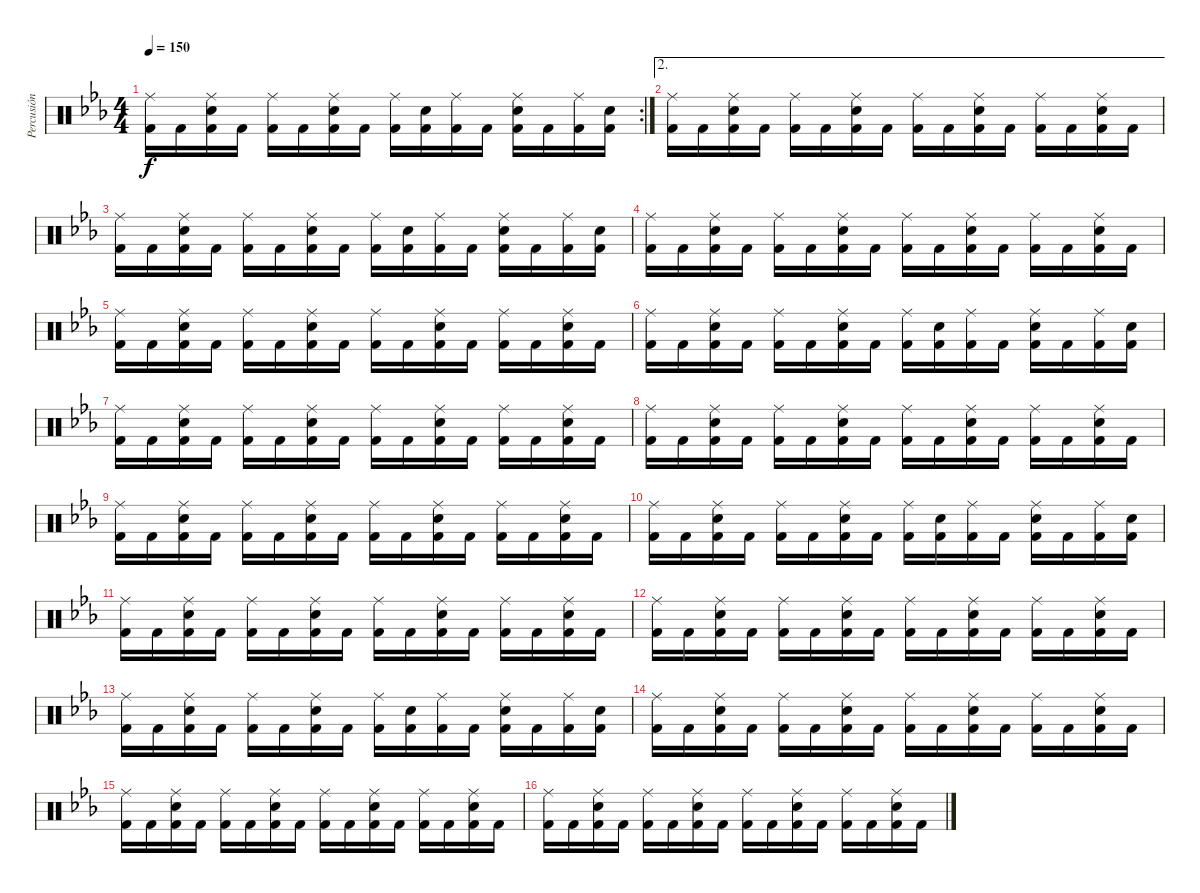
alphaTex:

\track ("Percusión" "Percusión") {instrument percussion}
\staff {score}
\articulation defaults
\rc 2
\ts (4 4)
\tempo 150
\clef neutral
\ks cminor
("Ride (middle)" "Kick (hit) 2").16{dy f} "Kick (hit) 2".16 ("Ride (middle)" "Electric Snare (hit)" "Kick (hit) 2").16 "Kick (hit) 2".16 ("Ride (middle)" "Kick (hit) 2").16 "Kick (hit) 2".16 ("Ride (middle)" "Electric Snare (hit)" "Kick (hit) 2").16 "Kick (hit) 2".16 ("Ride (middle)" "Kick (hit) 2").16 ("Electric Snare (hit)" "Kick (hit) 2").16 ("Ride (middle)" "Kick (hit) 2").16 "Kick (hit) 2".16 ("Ride (middle)" "Electric Snare (hit)" "Kick (hit) 2").16 "Kick (hit) 2".16 ("Ride (middle)" "Kick (hit) 2").16 ("Electric Snare (hit)" "Kick (hit) 2").16 |
\ae 2
("Ride (middle)" "Kick (hit) 2").16 "Kick (hit) 2".16 ("Ride (middle)" "Electric Snare (hit)" "Kick (hit) 2").16 "Kick (hit) 2".16 ("Ride (middle)" "Kick (hit) 2").16 "Kick (hit) 2".16 ("Ride (middle)" "Electric Snare (hit)" "Kick (hit) 2").16 "Kick (hit) 2".16 ("Ride (middle)" "Kick (hit) 2").16 "Kick (hit) 2".16 ("Ride (middle)" "Electric Snare (hit)" "Kick (hit) 2").16 "Kick (hit) 2".16 ("Ride (middle)" "Kick (hit) 2").16 "Kick (hit) 2".16 ("Ride (middle)" "Electric Snare (hit)" "Kick (hit) 2").16 "Kick (hit) 2".16 |
("Ride (middle)" "Kick (hit) 2").16 "Kick (hit) 2".16 ("Ride (middle)" "Electric Snare (hit)" "Kick (hit) 2").16 "Kick (hit) 2".16 ("Ride (middle)" "Kick (hit) 2").16 "Kick (hit) 2".16 ("Ride (middle)" "Electric Snare (hit)" "Kick (hit) 2").16 "Kick (hit) 2".16 ("Ride (middle)" "Kick (hit) 2").16 ("Electric Snare (hit)" "Kick (hit) 2").16 ("Ride (middle)" "Kick (hit) 2").16 "Kick (hit) 2".16 ("Ride (middle)" "Electric Snare (hit)" "Kick (hit) 2").16 "Kick (hit) 2".16 ("Ride (middle)" "Kick (hit) 2").16 ("Electric Snare (hit)" "Kick (hit) 2").16 |
("Ride (middle)" "Kick (hit) 2").16 "Kick (hit) 2".16 ("Ride (middle)" "Electric Snare (hit)" "Kick (hit) 2").16 "Kick (hit) 2".16 ("Ride (middle)" "Kick (hit) 2").16 "Kick (hit) 2".16 ("Ride (middle)" "Electric Snare (hit)" "Kick (hit) 2").16 "Kick (hit) 2".16 ("Ride (middle)" "Kick (hit) 2").16 "Kick (hit) 2".16 ("Ride (middle)" "Electric Snare (hit)" "Kick (hit) 2").16 "Kick (hit) 2".16 ("Ride (middle)" "Kick (hit) 2").16 "Kick (hit) 2".16 ("Ride (middle)" "Electric Snare (hit)" "Kick (hit) 2").16 "Kick (hit) 2".16 |
("Ride (middle)" "Kick (hit) 2").16 "Kick (hit) 2".16 ("Ride (middle)" "Electric Snare (hit)" "Kick (hit) 2").16 "Kick (hit) 2".16 ("Ride (middle)" "Kick (hit) 2").16 "Kick (hit) 2".16 ("Ride (middle)" "Electric Snare (hit)" "Kick (hit) 2").16 "Kick (hit) 2".16 ("Ride (middle)" "Kick (hit) 2").16 "Kick (hit) 2".16 ("Ride (middle)" "Electric Snare (hit)" "Kick (hit) 2").16 "Kick (hit) 2".16 ("Ride (middle)" "Kick (hit) 2").16 "Kick (hit) 2".16 ("Ride (middle)" "Electric Snare (hit)" "Kick (hit) 2").16 "Kick (hit) 2".16 |
("Ride (middle)" "Kick (hit) 2").16 "Kick (hit) 2".16 ("Ride (middle)" "Electric Snare (hit)" "Kick (hit) 2").16 "Kick (hit) 2".16 ("Ride (middle)" "Kick (hit) 2").16 "Kick (hit) 2".16 ("Ride (middle)" "Electric Snare (hit)" "Kick (hit) 2").16 "Kick (hit) 2".16 ("Ride (middle)" "Kick (hit) 2").16 ("Electric Snare (hit)" "Kick (hit) 2").16 ("Ride (middle)" "Kick (hit) 2").16 "Kick (hit) 2".16 ("Ride (middle)" "Electric Snare (hit)" "Kick (hit) 2").16 "Kick (hit) 2".16 ("Ride (middle)" "Kick (hit) 2").16 ("Electric Snare (hit)" "Kick (hit) 2").16 |
("Ride (middle)" "Kick (hit) 2").16 "Kick (hit) 2".16 ("Ride (middle)" "Electric Snare (hit)" "Kick (hit) 2").16 "Kick (hit) 2".16 ("Ride (middle)" "Kick (hit) 2").16 "Kick (hit) 2".16 ("Ride (middle)" "Electric Snare (hit)" "Kick (hit) 2").16 "Kick (hit) 2".16 ("Ride (middle)" "Kick (hit) 2").16 "Kick (hit) 2".16 ("Ride (middle)" "Electric Snare (hit)" "Kick (hit) 2").16 "Kick (hit) 2".16 ("Ride (middle)" "Kick (hit) 2").16 "Kick (hit) 2".16 ("Ride (middle)" "Electric Snare (hit)" "Kick (hit) 2").16 "Kick (hit) 2".16 |
("Ride (middle)" "Kick (hit) 2").16 "Kick (hit) 2".16 ("Ride (middle)" "Electric Snare (hit)" "Kick (hit) 2").16 "Kick (hit) 2".16 ("Ride (middle)" "Kick (hit) 2").16 "Kick (hit) 2".16 ("Ride (middle)" "Electric Snare (hit)" "Kick (hit) 2").16 "Kick (hit) 2".16 ("Ride (middle)" "Kick (hit) 2").16 "Kick (hit) 2".16 ("Ride (middle)" "Electric Snare (hit)" "Kick (hit) 2").16 "Kick (hit) 2".16 ("Ride (middle)" "Kick (hit) 2").16 "Kick (hit) 2".16 ("Ride (middle)" "Electric Snare (hit)" "Kick (hit) 2").16 "Kick (hit) 2".16 |
("Ride (middle)" "Kick (hit) 2").16 "Kick (hit) 2".16 ("Ride (middle)" "Electric Snare (hit)" "Kick (hit) 2").16 "Kick (hit) 2".16 ("Ride (middle)" "Kick (hit) 2").16 "Kick (hit) 2".16 ("Ride (middle)" "Electric Snare (hit)" "Kick (hit) 2").16 "Kick (hit) 2".16 ("Ride (middle)" "Kick (hit) 2").16 "Kick (hit) 2".16 ("Ride (middle)" "Electric Snare (hit)" "Kick (hit) 2").16 "Kick (hit) 2".16 ("Ride (middle)" "Kick (hit) 2").16 "Kick (hit) 2".16 ("Ride (middle)" "Electric Snare (hit)" "Kick (hit) 2").16 "Kick (hit) 2".16 |
("Ride (middle)" "Kick (hit) 2").16 "Kick (hit) 2".16 ("Ride (middle)" "Electric Snare (hit)" "Kick (hit) 2").16 "Kick (hit) 2".16 ("Ride (middle)" "Kick (hit) 2").16 "Kick (hit) 2".16 ("Ride (middle)" "Electric Snare (hit)" "Kick (hit) 2").16 "Kick (hit) 2".16 ("Ride (middle)" "Kick (hit) 2").16 ("Electric Snare (hit)" "Kick (hit) 2").16 ("Ride (middle)" "Kick (hit) 2").16 "Kick (hit) 2".16 ("Ride (middle)" "Electric Snare (hit)" "Kick (hit) 2").16 "Kick (hit) 2".16 ("Ride (middle)" "Kick (hit) 2").16 ("Electric Snare (hit)" "Kick (hit) 2").16 |
("Ride (middle)" "Kick (hit) 2").16 "Kick (hit) 2".16 ("Ride (middle)" "Electric Snare (hit)" "Kick (hit) 2").16 "Kick (hit) 2".16 ("Ride (middle)" "Kick (hit) 2").16 "Kick (hit) 2".16 ("Ride (middle)" "Electric Snare (hit)" "Kick (hit) 2").16 "Kick (hit) 2".16 ("Ride (middle)" "Kick (hit) 2").16 "Kick (hit) 2".16 ("Ride (middle)" "Electric Snare (hit)" "Kick (hit) 2").16 "Kick (hit) 2".16 ("Ride (middle)" "Kick (hit) 2").16 "Kick (hit) 2".16 ("Ride (middle)" "Electric Snare (hit)" "Kick (hit) 2").16 "Kick (hit) 2".16 |
("Ride (middle)" "Kick (hit) 2").16 "Kick (hit) 2".16 ("Ride (middle)" "Electric Snare (hit)" "Kick (hit) 2").16 "Kick (hit) 2".16 ("Ride (middle)" "Kick (hit) 2").16 "Kick (hit) 2".16 ("Ride (middle)" "Electric Snare (hit)" "Kick (hit) 2").16 "Kick (hit) 2".16 ("Ride (middle)" "Kick (hit) 2").16 "Kick (hit) 2".16 ("Ride (middle)" "Electric Snare (hit)" "Kick (hit) 2").16 "Kick (hit) 2".16 ("Ride (middle)" "Kick (hit) 2").16 "Kick (hit) 2".16 ("Ride (middle)" "Electric Snare (hit)" "Kick (hit) 2").16 "Kick (hit) 2".16 |
("Ride (middle)" "Kick (hit) 2").16 "Kick (hit) 2".16 ("Ride (middle)" "Electric Snare (hit)" "Kick (hit) 2").16 "Kick (hit) 2".16 ("Ride (middle)" "Kick (hit) 2").16 "Kick (hit) 2".16 ("Ride (middle)" "Electric Snare (hit)" "Kick (hit) 2").16 "Kick (hit) 2".16 ("Ride (middle)" "Kick (hit) 2").16 ("Electric Snare (hit)" "Kick (hit) 2").16 ("Ride (middle)" "Kick (hit) 2").16 "Kick (hit) 2".16 ("Ride (middle)" "Electric Snare (hit)" "Kick (hit) 2").16 "Kick (hit) 2".16 ("Ride (middle)" "Kick (hit) 2").16 ("Electric Snare (hit)" "Kick (hit) 2").16 |
("Ride (middle)" "Kick (hit) 2").16 "Kick (hit) 2".16 ("Ride (middle)" "Electric Snare (hit)" "Kick (hit) 2").16 "Kick (hit) 2".16 ("Ride (middle)" "Kick (hit) 2").16 "Kick (hit) 2".16 ("Ride (middle)" "Electric Snare (hit)" "Kick (hit) 2").16 "Kick (hit) 2".16 ("Ride (middle)" "Kick (hit) 2").16 "Kick (hit) 2".16 ("Ride (middle)" "Electric Snare (hit)" "Kick (hit) 2").16 "Kick (hit) 2".16 ("Ride (middle)" "Kick (hit) 2").16 "Kick (hit) 2".16 ("Ride (middle)" "Electric Snare (hit)" "Kick (hit) 2").16 "Kick (hit) 2".16 |
("Ride (middle)" "Kick (hit) 2").16 "Kick (hit) 2".16 ("Ride (middle)" "Electric Snare (hit)" "Kick (hit) 2").16 "Kick (hit) 2".16 ("Ride (middle)" "Kick (hit) 2").16 "Kick (hit) 2".16 ("Ride (middle)" "Electric Snare (hit)" "Kick (hit) 2").16 "Kick (hit) 2".16 ("Ride (middle)" "Kick (hit) 2").16 "Kick (hit) 2".16 ("Ride (middle)" "Electric Snare (hit)" "Kick (hit) 2").16 "Kick (hit) 2".16 ("Ride (middle)" "Kick (hit) 2").16 "Kick (hit) 2".16 ("Ride (middle)" "Electric Snare (hit)" "Kick (hit) 2").16 "Kick (hit) 2".16 |
("Ride (middle)" "Kick (hit) 2").16 "Kick (hit) 2".16 ("Ride (middle)" "Electric Snare (hit)" "Kick (hit) 2").16 "Kick (hit) 2".16 ("Ride (middle)" "Kick (hit) 2").16 "Kick (hit) 2".16 ("Ride (middle)" "Electric Snare (hit)" "Kick (hit) 2").16 "Kick (hit) 2".16 ("Ride (middle)" "Kick (hit) 2").16 "Kick (hit) 2".16 ("Ride (middle)" "Electric Snare (hit)" "Kick (hit) 2").16 "Kick (hit) 2".16 ("Ride (middle)" "Kick (hit) 2").16 "Kick (hit) 2".16 ("Ride (middle)" "Electric Snare (hit)" "Kick (hit) 2").16 "Kick (hit) 2".16
